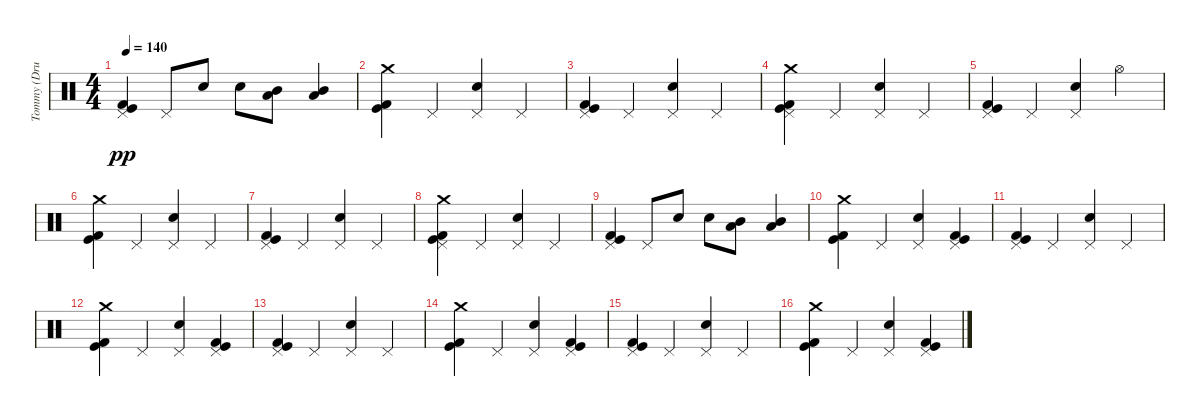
\track ("Tommy (Drums)" "Tommy (Dru") {instrument percussion}
\staff {score}
\articulation defaults
\ts (4 4)
\tempo 140
\clef neutral
\ks c
("Pedal Hi-Hat (hit)" "Kick (hit) 2" "Kick (hit)").4{dy pp} "Pedal Hi-Hat (hit)".8 "Snare (hit) 2".8 "Snare (hit) 2".8 ("Low Tom (hit)" "Mid Tom (hit)").8 ("Low Tom (hit)" "Mid Tom (hit)").4 |
("Kick (hit) 2" "Kick (hit)" "Crash medium (hit)").4 "Pedal Hi-Hat (hit)".4 ("Pedal Hi-Hat (hit)" "Snare (hit) 2").4 "Pedal Hi-Hat (hit)".4 |
("Pedal Hi-Hat (hit)" "Kick (hit) 2" "Kick (hit)").4 "Pedal Hi-Hat (hit)".4 ("Pedal Hi-Hat (hit)" "Snare (hit) 2").4 "Pedal Hi-Hat (hit)".4 |
("Crash medium (hit)" "Pedal Hi-Hat (hit)" "Kick (hit) 2" "Kick (hit)").4 "Pedal Hi-Hat (hit)".4 ("Pedal Hi-Hat (hit)" "Snare (hit) 2").4 "Pedal Hi-Hat (hit)".4 |
("Pedal Hi-Hat (hit)" "Kick (hit) 2" "Kick (hit)").4 "Pedal Hi-Hat (hit)".4 ("Pedal Hi-Hat (hit)" "Snare (hit) 2").4 "Hi-Hat (open)".4 |
("Kick (hit) 2" "Kick (hit)" "Crash medium (hit)").4 "Pedal Hi-Hat (hit)".4 ("Pedal Hi-Hat (hit)" "Snare (hit) 2").4 "Pedal Hi-Hat (hit)".4 |
("Pedal Hi-Hat (hit)" "Kick (hit) 2" "Kick (hit)").4 "Pedal Hi-Hat (hit)".4 ("Pedal Hi-Hat (hit)" "Snare (hit) 2").4 "Pedal Hi-Hat (hit)".4 |
("Crash medium (hit)" "Pedal Hi-Hat (hit)" "Kick (hit) 2" "Kick (hit)").4 "Pedal Hi-Hat (hit)".4 ("Pedal Hi-Hat (hit)" "Snare (hit) 2").4 "Pedal Hi-Hat (hit)".4 |
("Pedal Hi-Hat (hit)" "Kick (hit) 2" "Kick (hit)").4 "Pedal Hi-Hat (hit)".8 "Snare (hit) 2".8 "Snare (hit) 2".8 ("Low Tom (hit)" "Mid Tom (hit)").8 ("Low Tom (hit)" "Mid Tom (hit)").4 |
("Kick (hit) 2" "Kick (hit)" "Crash medium (hit)").4 "Pedal Hi-Hat (hit)".4 ("Pedal Hi-Hat (hit)" "Snare (hit) 2").4 ("Kick (hit)" "Kick (hit) 2" "Pedal Hi-Hat (hit)").4 |
("Pedal Hi-Hat (hit)" "Kick (hit) 2" "Kick (hit)").4 "Pedal Hi-Hat (hit)".4 ("Pedal Hi-Hat (hit)" "Snare (hit) 2").4 "Pedal Hi-Hat (hit)".4 |
("Kick (hit) 2" "Kick (hit)" "Crash medium (hit)").4 "Pedal Hi-Hat (hit)".4 ("Pedal Hi-Hat (hit)" "Snare (hit) 2").4 ("Kick (hit)" "Kick (hit) 2" "Pedal Hi-Hat (hit)").4 |
("Pedal Hi-Hat (hit)" "Kick (hit) 2" "Kick (hit)").4 "Pedal Hi-Hat (hit)".4 ("Pedal Hi-Hat (hit)" "Snare (hit) 2").4 "Pedal Hi-Hat (hit)".4 |
("Kick (hit) 2" "Kick (hit)" "Crash medium (hit)").4 "Pedal Hi-Hat (hit)".4 ("Pedal Hi-Hat (hit)" "Snare (hit) 2").4 ("Kick (hit)" "Kick (hit) 2" "Pedal Hi-Hat (hit)").4 |
("Pedal Hi-Hat (hit)" "Kick (hit) 2" "Kick (hit)").4 "Pedal Hi-Hat (hit)".4 ("Pedal Hi-Hat (hit)" "Snare (hit) 2").4 "Pedal Hi-Hat (hit)".4 |
("Kick (hit) 2" "Kick (hit)" "Crash medium (hit)").4 "Pedal Hi-Hat (hit)".4 ("Pedal Hi-Hat (hit)" "Snare (hit) 2").4 ("Kick (hit)" "Kick (hit) 2" "Pedal Hi-Hat (hit)").4
